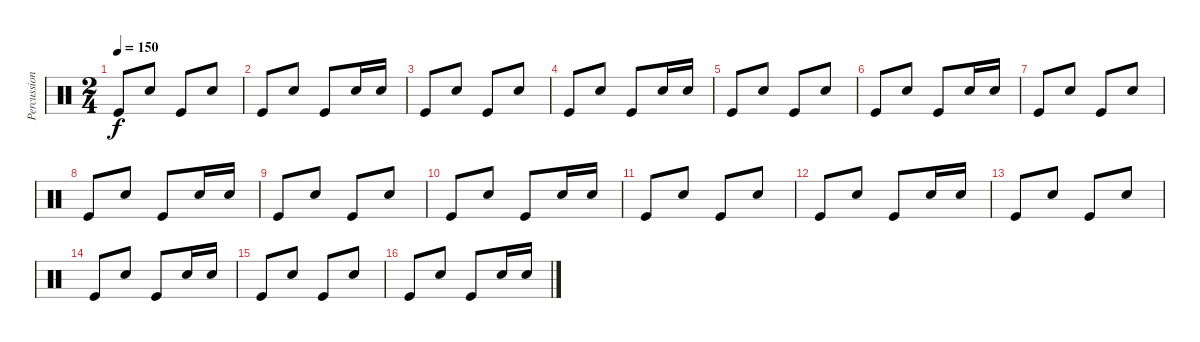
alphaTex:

\track ("Percussions" "Percussion") {instrument percussion}
\staff {score}
\articulation defaults
\ts (2 4)
\tempo 150
\clef neutral
\ks c "Kick (hit)".8{dy f} "Electric Snare (hit)".8 "Kick (hit)".8 "Electric Snare (hit)".8
|
"Kick (hit)".8 "Electric Snare (hit)".8 "Kick (hit)".8 "Electric Snare (hit)".16 "Electric Snare (hit)".16 |
"Kick (hit)".8 "Electric Snare (hit)".8 "Kick (hit)".8 "Electric Snare (hit)".8 |
"Kick (hit)".8 "Electric Snare (hit)".8 "Kick (hit)".8 "Electric Snare (hit)".16 "Electric Snare (hit)".16 |
"Kick (hit)".8 "Electric Snare (hit)".8 "Kick (hit)".8 "Electric Snare (hit)".8 |
"Kick (hit)".8 "Electric Snare (hit)".8 "Kick (hit)".8 "Electric Snare (hit)".16 "Electric Snare (hit)".16 |
"Kick (hit)".8 "Electric Snare (hit)".8 "Kick (hit)".8 "Electric Snare (hit)".8 |
"Kick (hit)".8 "Electric Snare (hit)".8 "Kick (hit)".8 "Electric Snare (hit)".16 "Electric Snare (hit)".16 |
"Kick (hit)".8 "Electric Snare (hit)".8 "Kick (hit)".8 "Electric Snare (hit)".8 |
"Kick (hit)".8 "Electric Snare (hit)".8 "Kick (hit)".8 "Electric Snare (hit)".16 "Electric Snare (hit)".16 |
"Kick (hit)".8 "Electric Snare (hit)".8 "Kick (hit)".8 "Electric Snare (hit)".8 |
"Kick (hit)".8 "Electric Snare (hit)".8 "Kick (hit)".8 "Electric Snare (hit)".16 "Electric Snare (hit)".16 |
"Kick (hit)".8 "Electric Snare (hit)".8 "Kick (hit)".8 "Electric Snare (hit)".8 |
"Kick (hit)".8 "Electric Snare (hit)".8 "Kick (hit)".8 "Electric Snare (hit)".16 "Electric Snare (hit)".16 |
"Kick (hit)".8 "Electric Snare (hit)".8 "Kick (hit)".8 "Electric Snare (hit)".8 |
"Kick (hit)".8 "Electric Snare (hit)".8 "Kick (hit)".8 "Electric Snare (hit)".16 "Electric Snare (hit)".16
